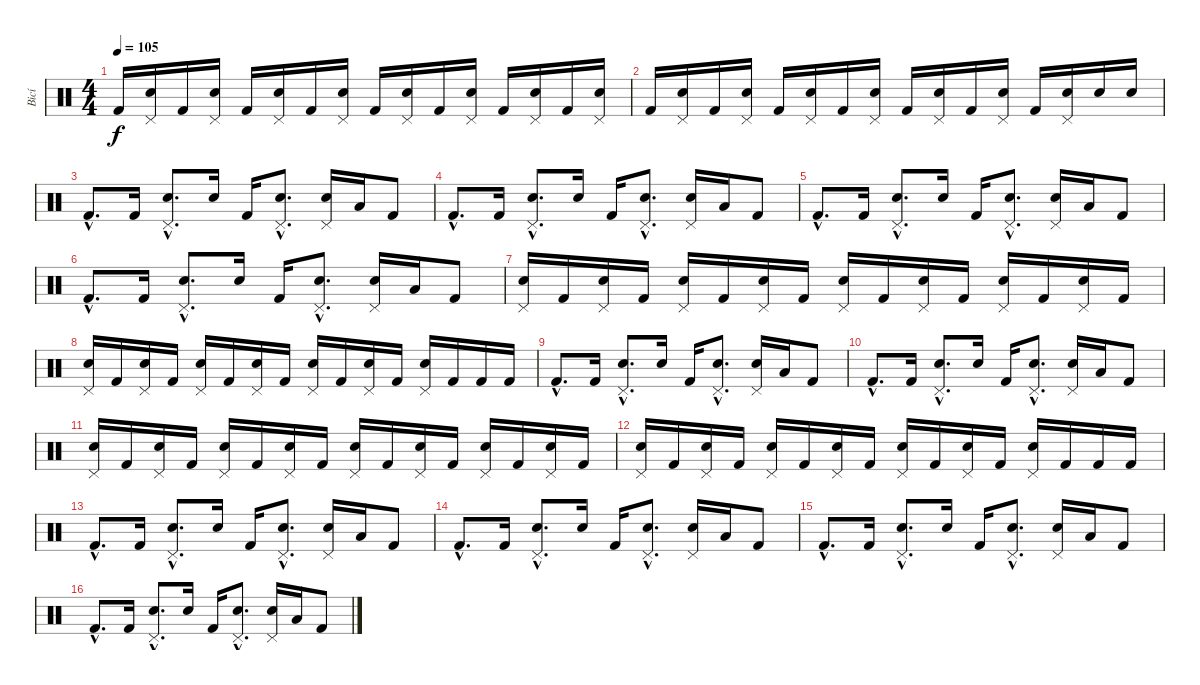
\track ("Bicí" "Bicí") {instrument percussion}
\staff {score}
\articulation defaults
\ts (4 4)
\tempo 105
\clef neutral
\ks c "Kick (hit) 2".16{dy f}
("Pedal Hi-Hat (hit)" "Snare (hit) 2").16 "Kick (hit) 2".16 ("Pedal Hi-Hat (hit)" "Snare (hit) 2").16 "Kick (hit) 2".16 ("Pedal Hi-Hat (hit)" "Snare (hit) 2").16 "Kick (hit) 2".16 ("Pedal Hi-Hat (hit)" "Snare (hit) 2").16 "Kick (hit) 2".16 ("Pedal Hi-Hat (hit)" "Snare (hit) 2").16 "Kick (hit) 2".16 ("Pedal Hi-Hat (hit)" "Snare (hit) 2").16 "Kick (hit) 2".16 ("Pedal Hi-Hat (hit)" "Snare (hit) 2").16 "Kick (hit) 2".16 ("Pedal Hi-Hat (hit)" "Snare (hit) 2").16 |
"Kick (hit) 2".16 ("Pedal Hi-Hat (hit)" "Snare (hit) 2").16 "Kick (hit) 2".16 ("Pedal Hi-Hat (hit)" "Snare (hit) 2").16 "Kick (hit) 2".16 ("Pedal Hi-Hat (hit)" "Snare (hit) 2").16 "Kick (hit) 2".16 ("Pedal Hi-Hat (hit)" "Snare (hit) 2").16 "Kick (hit) 2".16 ("Pedal Hi-Hat (hit)" "Snare (hit) 2").16 "Kick (hit) 2".16 ("Pedal Hi-Hat (hit)" "Snare (hit) 2").16 "Kick (hit) 2".16 ("Pedal Hi-Hat (hit)" "Snare (hit) 2").16 "Snare (hit) 2".16 "Snare (hit) 2".16 |
"Kick (hit) 2"{hac}.8{d} "Kick (hit) 2".16 ("Pedal Hi-Hat (hit)"{hac} "Snare (hit) 2"{hac}).8{d} "Snare (hit) 2".16 "Kick (hit) 2".16 ("Pedal Hi-Hat (hit)"{hac} "Snare (hit) 2"{hac}).8{d} ("Pedal Hi-Hat (hit)" "Snare (hit) 2").16 "Low Tom (hit)".16 "Kick (hit) 2".8 |
"Kick (hit) 2"{hac}.8{d} "Kick (hit) 2".16 ("Pedal Hi-Hat (hit)"{hac} "Snare (hit) 2"{hac}).8{d} "Snare (hit) 2".16 "Kick (hit) 2".16 ("Pedal Hi-Hat (hit)"{hac} "Snare (hit) 2"{hac}).8{d} ("Pedal Hi-Hat (hit)" "Snare (hit) 2").16 "Low Tom (hit)".16 "Kick (hit) 2".8 |
"Kick (hit) 2"{hac}.8{d} "Kick (hit) 2".16 ("Pedal Hi-Hat (hit)"{hac} "Snare (hit) 2"{hac}).8{d} "Snare (hit) 2".16 "Kick (hit) 2".16 ("Pedal Hi-Hat (hit)"{hac} "Snare (hit) 2"{hac}).8{d} ("Pedal Hi-Hat (hit)" "Snare (hit) 2").16 "Low Tom (hit)".16 "Kick (hit) 2".8 |
"Kick (hit) 2"{hac}.8{d} "Kick (hit) 2".16 ("Pedal Hi-Hat (hit)"{hac} "Snare (hit) 2"{hac}).8{d} "Snare (hit) 2".16 "Kick (hit) 2".16 ("Pedal Hi-Hat (hit)"{hac} "Snare (hit) 2"{hac}).8{d} ("Pedal Hi-Hat (hit)" "Snare (hit) 2").16 "Low Tom (hit)".16 "Kick (hit) 2".8 |
("Pedal Hi-Hat (hit)" "Snare (hit) 2").16 "Kick (hit) 2".16 ("Pedal Hi-Hat (hit)" "Snare (hit) 2").16 "Kick (hit) 2".16 ("Pedal Hi-Hat (hit)" "Snare (hit) 2").16 "Kick (hit) 2".16 ("Pedal Hi-Hat (hit)" "Snare (hit) 2").16 "Kick (hit) 2".16 ("Pedal Hi-Hat (hit)" "Snare (hit) 2").16 "Kick (hit) 2".16 ("Pedal Hi-Hat (hit)" "Snare (hit) 2").16 "Kick (hit) 2".16 ("Pedal Hi-Hat (hit)" "Snare (hit) 2").16 "Kick (hit) 2".16 ("Pedal Hi-Hat (hit)" "Snare (hit) 2").16 "Kick (hit) 2".16 |
("Pedal Hi-Hat (hit)" "Snare (hit) 2").16 "Kick (hit) 2".16 ("Pedal Hi-Hat (hit)" "Snare (hit) 2").16 "Kick (hit) 2".16 ("Pedal Hi-Hat (hit)" "Snare (hit) 2").16 "Kick (hit) 2".16 ("Pedal Hi-Hat (hit)" "Snare (hit) 2").16 "Kick (hit) 2".16 ("Pedal Hi-Hat (hit)" "Snare (hit) 2").16 "Kick (hit) 2".16 ("Pedal Hi-Hat (hit)" "Snare (hit) 2").16 "Kick (hit) 2".16 ("Pedal Hi-Hat (hit)" "Snare (hit) 2").16 "Kick (hit) 2".16 "Kick (hit) 2".16 "Kick (hit) 2".16 |
"Kick (hit) 2"{hac}.8{d} "Kick (hit) 2".16 ("Pedal Hi-Hat (hit)"{hac} "Snare (hit) 2"{hac}).8{d} "Snare (hit) 2".16 "Kick (hit) 2".16 ("Pedal Hi-Hat (hit)"{hac} "Snare (hit) 2"{hac}).8{d} ("Pedal Hi-Hat (hit)" "Snare (hit) 2").16 "Low Tom (hit)".16 "Kick (hit) 2".8 |
"Kick (hit) 2"{hac}.8{d} "Kick (hit) 2".16 ("Pedal Hi-Hat (hit)"{hac} "Snare (hit) 2"{hac}).8{d} "Snare (hit) 2".16 "Kick (hit) 2".16 ("Pedal Hi-Hat (hit)"{hac} "Snare (hit) 2"{hac}).8{d} ("Pedal Hi-Hat (hit)" "Snare (hit) 2").16 "Low Tom (hit)".16 "Kick (hit) 2".8 |
("Pedal Hi-Hat (hit)" "Snare (hit) 2").16 "Kick (hit) 2".16 ("Pedal Hi-Hat (hit)" "Snare (hit) 2").16 "Kick (hit) 2".16 ("Pedal Hi-Hat (hit)" "Snare (hit) 2").16 "Kick (hit) 2".16 ("Pedal Hi-Hat (hit)" "Snare (hit) 2").16 "Kick (hit) 2".16 ("Pedal Hi-Hat (hit)" "Snare (hit) 2").16 "Kick (hit) 2".16 ("Pedal Hi-Hat (hit)" "Snare (hit) 2").16 "Kick (hit) 2".16 ("Pedal Hi-Hat (hit)" "Snare (hit) 2").16 "Kick (hit) 2".16 ("Pedal Hi-Hat (hit)" "Snare (hit) 2").16 "Kick (hit) 2".16 |
("Pedal Hi-Hat (hit)" "Snare (hit) 2").16 "Kick (hit) 2".16 ("Pedal Hi-Hat (hit)" "Snare (hit) 2").16 "Kick (hit) 2".16 ("Pedal Hi-Hat (hit)" "Snare (hit) 2").16 "Kick (hit) 2".16 ("Pedal Hi-Hat (hit)" "Snare (hit) 2").16 "Kick (hit) 2".16 ("Pedal Hi-Hat (hit)" "Snare (hit) 2").16 "Kick (hit) 2".16 ("Pedal Hi-Hat (hit)" "Snare (hit) 2").16 "Kick (hit) 2".16 ("Pedal Hi-Hat (hit)" "Snare (hit) 2").16 "Kick (hit) 2".16 "Kick (hit) 2".16 "Kick (hit) 2".16 |
"Kick (hit) 2"{hac}.8{d} "Kick (hit) 2".16 ("Pedal Hi-Hat (hit)"{hac} "Snare (hit) 2"{hac}).8{d} "Snare (hit) 2".16 "Kick (hit) 2".16 ("Pedal Hi-Hat (hit)"{hac} "Snare (hit) 2"{hac}).8{d} ("Pedal Hi-Hat (hit)" "Snare (hit) 2").16 "Low Tom (hit)".16 "Kick (hit) 2".8 |
"Kick (hit) 2"{hac}.8{d} "Kick (hit) 2".16 ("Pedal Hi-Hat (hit)"{hac} "Snare (hit) 2"{hac}).8{d} "Snare (hit) 2".16 "Kick (hit) 2".16 ("Pedal Hi-Hat (hit)"{hac} "Snare (hit) 2"{hac}).8{d} ("Pedal Hi-Hat (hit)" "Snare (hit) 2").16 "Low Tom (hit)".16 "Kick (hit) 2".8 |
"Kick (hit) 2"{hac}.8{d} "Kick (hit) 2".16 ("Pedal Hi-Hat (hit)"{hac} "Snare (hit) 2"{hac}).8{d} "Snare (hit) 2".16 "Kick (hit) 2".16 ("Pedal Hi-Hat (hit)"{hac} "Snare (hit) 2"{hac}).8{d} ("Pedal Hi-Hat (hit)" "Snare (hit) 2").16 "Low Tom (hit)".16 "Kick (hit) 2".8 |
"Kick (hit) 2"{hac}.8{d} "Kick (hit) 2".16 ("Pedal Hi-Hat (hit)"{hac} "Snare (hit) 2"{hac}).8{d} "Snare (hit) 2".16 "Kick (hit) 2".16 ("Pedal Hi-Hat (hit)"{hac} "Snare (hit) 2"{hac}).8{d} ("Pedal Hi-Hat (hit)" "Snare (hit) 2").16 "Low Tom (hit)".16 "Kick (hit) 2".8
